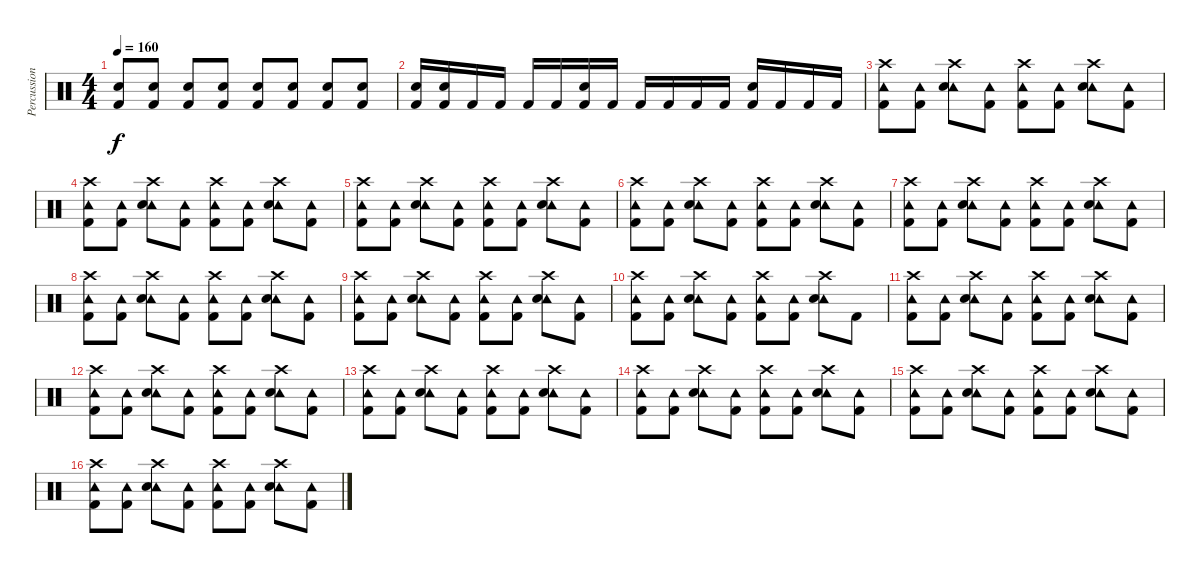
\track ("Percussion" "Percussion") {instrument percussion}
\staff {score}
\articulation defaults
\ts (4 4)
\tempo 160
\clef neutral
\ks c
("Snare (hit) 2" "Kick (hit) 2").8{dy f} ("Snare (hit) 2" "Kick (hit) 2").8 ("Snare (hit) 2" "Kick (hit) 2").8 ("Snare (hit) 2" "Kick (hit) 2").8 ("Snare (hit) 2" "Kick (hit) 2").8 ("Snare (hit) 2" "Kick (hit) 2").8 ("Snare (hit) 2" "Kick (hit) 2").8 ("Snare (hit) 2" "Kick (hit) 2").8 |
("Snare (hit) 2" "Kick (hit) 2").16 ("Snare (hit) 2" "Kick (hit) 2").16 "Kick (hit) 2".16 "Kick (hit) 2".16 "Kick (hit) 2".16 "Kick (hit) 2".16 ("Snare (hit) 2" "Kick (hit) 2").16 "Kick (hit) 2".16 "Kick (hit) 2".16 "Kick (hit) 2".16 "Kick (hit) 2".16 "Kick (hit) 2".16 ("Snare (hit) 2" "Kick (hit) 2").16 "Kick (hit) 2".16 "Kick (hit) 2".16 "Kick (hit) 2".16 |
("Tambourine (hit)" "Crash high (hit)" "Kick (hit) 2").8 ("Tambourine (hit)" "Kick (hit) 2").8 ("Tambourine (hit)" "Crash high (hit)" "Snare (hit) 2").8 ("Tambourine (hit)" "Kick (hit) 2").8 ("Tambourine (hit)" "Crash high (hit)" "Kick (hit) 2").8 ("Tambourine (hit)" "Kick (hit) 2").8 ("Tambourine (hit)" "Crash high (hit)" "Snare (hit) 2").8 ("Tambourine (hit)" "Kick (hit) 2").8 |
("Tambourine (hit)" "Crash high (hit)" "Kick (hit) 2").8 ("Tambourine (hit)" "Kick (hit) 2").8 ("Tambourine (hit)" "Crash high (hit)" "Snare (hit) 2").8 ("Tambourine (hit)" "Kick (hit) 2").8 ("Tambourine (hit)" "Crash high (hit)" "Kick (hit) 2").8 ("Tambourine (hit)" "Kick (hit) 2").8 ("Tambourine (hit)" "Crash high (hit)" "Snare (hit) 2").8 ("Tambourine (hit)" "Kick (hit) 2").8 |
("Tambourine (hit)" "Crash high (hit)" "Kick (hit) 2").8 ("Tambourine (hit)" "Kick (hit) 2").8 ("Tambourine (hit)" "Crash high (hit)" "Snare (hit) 2").8 ("Tambourine (hit)" "Kick (hit) 2").8 ("Tambourine (hit)" "Crash high (hit)" "Kick (hit) 2").8 ("Tambourine (hit)" "Kick (hit) 2").8 ("Tambourine (hit)" "Crash high (hit)" "Snare (hit) 2").8 ("Tambourine (hit)" "Kick (hit) 2").8 |
("Tambourine (hit)" "Crash high (hit)" "Kick (hit) 2").8 ("Tambourine (hit)" "Kick (hit) 2").8 ("Tambourine (hit)" "Crash high (hit)" "Snare (hit) 2").8 ("Tambourine (hit)" "Kick (hit) 2").8 ("Tambourine (hit)" "Crash high (hit)" "Kick (hit) 2").8 ("Tambourine (hit)" "Kick (hit) 2").8 ("Tambourine (hit)" "Crash high (hit)" "Snare (hit) 2").8 ("Tambourine (hit)" "Kick (hit) 2").8 |
("Tambourine (hit)" "Crash high (hit)" "Kick (hit) 2").8 ("Tambourine (hit)" "Kick (hit) 2").8 ("Tambourine (hit)" "Crash high (hit)" "Snare (hit) 2").8 ("Tambourine (hit)" "Kick (hit) 2").8 ("Tambourine (hit)" "Crash high (hit)" "Kick (hit) 2").8 ("Tambourine (hit)" "Kick (hit) 2").8 ("Tambourine (hit)" "Crash high (hit)" "Snare (hit) 2").8 ("Tambourine (hit)" "Kick (hit) 2").8 |
("Tambourine (hit)" "Crash high (hit)" "Kick (hit) 2").8 ("Tambourine (hit)" "Kick (hit) 2").8 ("Tambourine (hit)" "Crash high (hit)" "Snare (hit) 2").8 ("Tambourine (hit)" "Kick (hit) 2").8 ("Tambourine (hit)" "Crash high (hit)" "Kick (hit) 2").8 ("Tambourine (hit)" "Kick (hit) 2").8 ("Tambourine (hit)" "Crash high (hit)" "Snare (hit) 2").8 ("Tambourine (hit)" "Kick (hit) 2").8 |
("Tambourine (hit)" "Crash high (hit)" "Kick (hit) 2").8 ("Tambourine (hit)" "Kick (hit) 2").8 ("Tambourine (hit)" "Crash high (hit)" "Snare (hit) 2").8 ("Tambourine (hit)" "Kick (hit) 2").8 ("Tambourine (hit)" "Crash high (hit)" "Kick (hit) 2").8 ("Tambourine (hit)" "Kick (hit) 2").8 ("Tambourine (hit)" "Crash high (hit)" "Snare (hit) 2").8 ("Tambourine (hit)" "Kick (hit) 2").8 |
("Tambourine (hit)" "Crash high (hit)" "Kick (hit) 2").8 ("Tambourine (hit)" "Kick (hit) 2").8 ("Tambourine (hit)" "Crash high (hit)" "Snare (hit) 2").8 ("Tambourine (hit)" "Kick (hit) 2").8 ("Tambourine (hit)" "Crash high (hit)" "Kick (hit) 2").8 ("Tambourine (hit)" "Kick (hit) 2").8 ("Tambourine (hit)" "Crash high (hit)" "Snare (hit) 2").8 "Kick (hit) 2".8 |
("Tambourine (hit)" "Crash high (hit)" "Kick (hit) 2").8 ("Tambourine (hit)" "Kick (hit) 2").8 ("Tambourine (hit)" "Crash high (hit)" "Snare (hit) 2").8 ("Tambourine (hit)" "Kick (hit) 2").8 ("Tambourine (hit)" "Crash high (hit)" "Kick (hit) 2").8 ("Tambourine (hit)" "Kick (hit) 2").8 ("Tambourine (hit)" "Crash high (hit)" "Snare (hit) 2").8 ("Tambourine (hit)" "Kick (hit) 2").8 |
("Tambourine (hit)" "Crash high (hit)" "Kick (hit) 2").8 ("Tambourine (hit)" "Kick (hit) 2").8 ("Tambourine (hit)" "Crash high (hit)" "Snare (hit) 2").8 ("Tambourine (hit)" "Kick (hit) 2").8 ("Tambourine (hit)" "Crash high (hit)" "Kick (hit) 2").8 ("Tambourine (hit)" "Kick (hit) 2").8 ("Tambourine (hit)" "Crash high (hit)" "Snare (hit) 2").8 ("Tambourine (hit)" "Kick (hit) 2").8 |
("Tambourine (hit)" "Crash high (hit)" "Kick (hit) 2").8 ("Tambourine (hit)" "Kick (hit) 2").8 ("Tambourine (hit)" "Crash high (hit)" "Snare (hit) 2").8 ("Tambourine (hit)" "Kick (hit) 2").8 ("Tambourine (hit)" "Crash high (hit)" "Kick (hit) 2").8 ("Tambourine (hit)" "Kick (hit) 2").8 ("Tambourine (hit)" "Crash high (hit)" "Snare (hit) 2").8 ("Tambourine (hit)" "Kick (hit) 2").8 |
("Tambourine (hit)" "Crash high (hit)" "Kick (hit) 2").8 ("Tambourine (hit)" "Kick (hit) 2").8 ("Tambourine (hit)" "Crash high (hit)" "Snare (hit) 2").8 ("Tambourine (hit)" "Kick (hit) 2").8 ("Tambourine (hit)" "Crash high (hit)" "Kick (hit) 2").8 ("Tambourine (hit)" "Kick (hit) 2").8 ("Tambourine (hit)" "Crash high (hit)" "Snare (hit) 2").8 ("Tambourine (hit)" "Kick (hit) 2").8 |
("Tambourine (hit)" "Crash high (hit)" "Kick (hit) 2").8 ("Tambourine (hit)" "Kick (hit) 2").8 ("Tambourine (hit)" "Crash high (hit)" "Snare (hit) 2").8 ("Tambourine (hit)" "Kick (hit) 2").8 ("Tambourine (hit)" "Crash high (hit)" "Kick (hit) 2").8 ("Tambourine (hit)" "Kick (hit) 2").8 ("Tambourine (hit)" "Crash high (hit)" "Snare (hit) 2").8 ("Tambourine (hit)" "Kick (hit) 2").8 |
("Tambourine (hit)" "Crash high (hit)" "Kick (hit) 2").8 ("Tambourine (hit)" "Kick (hit) 2").8 ("Tambourine (hit)" "Crash high (hit)" "Snare (hit) 2").8 ("Tambourine (hit)" "Kick (hit) 2").8 ("Tambourine (hit)" "Crash high (hit)" "Kick (hit) 2").8 ("Tambourine (hit)" "Kick (hit) 2").8 ("Tambourine (hit)" "Crash high (hit)" "Snare (hit) 2").8 ("Tambourine (hit)" "Kick (hit) 2").8
